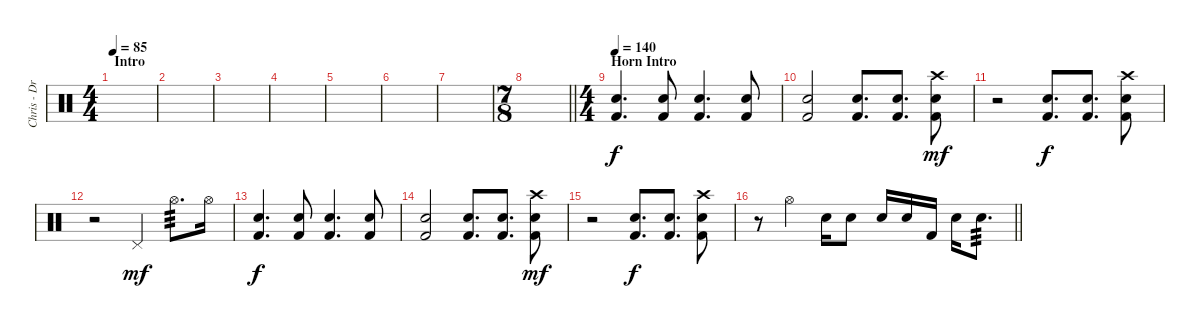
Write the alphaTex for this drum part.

\track ("Chris - Drums" "Chris - Dr") {instrument percussion}
\staff {score}
\articulation defaults
\ts (4 4)
\section ("" "Intro")
\tempo 85
\clef neutral
\ks c
|
|
|
|
|
|
|
\ts (7 8)
\barLineRight lightlight
|
\ts (4 4)
\section ("" "Horn Intro")
\tempo 140
("Electric Snare (hit)" "Kick (hit) 2").4{d} ("Electric Snare (hit)" "Kick (hit) 2").8 ("Electric Snare (hit)" "Kick (hit) 2").4{d} ("Electric Snare (hit)" "Kick (hit) 2").8 |
("Electric Snare (hit)" "Kick (hit) 2").2 ("Electric Snare (hit)" "Kick (hit) 2").8{d} ("Electric Snare (hit)" "Kick (hit) 2").8{d} ("Crash high (hit)" "Electric Snare (hit)" "Kick (hit) 2").8{dy mf} |
r.2 ("Electric Snare (hit)" "Kick (hit) 2").8{d dy f} ("Electric Snare (hit)" "Kick (hit) 2").8{d} ("Crash high (hit)" "Electric Snare (hit)" "Kick (hit) 2").8 |
r.2 "Pedal Hi-Hat (hit)".4{dy mf} "Hi-Hat (open)".8{d tp 3} "Hi-Hat (open)".16 |
("Electric Snare (hit)" "Kick (hit) 2").4{d dy f} ("Electric Snare (hit)" "Kick (hit) 2").8 ("Electric Snare (hit)" "Kick (hit) 2").4{d} ("Electric Snare (hit)" "Kick (hit) 2").8 |
("Electric Snare (hit)" "Kick (hit) 2").2 ("Electric Snare (hit)" "Kick (hit) 2").8{d} ("Electric Snare (hit)" "Kick (hit) 2").8{d} ("Crash high (hit)" "Electric Snare (hit)" "Kick (hit) 2").8{dy mf} |
r.2 ("Electric Snare (hit)" "Kick (hit) 2").8{d dy f} ("Electric Snare (hit)" "Kick (hit) 2").8{d} ("Crash high (hit)" "Electric Snare (hit)" "Kick (hit) 2").8 |
\barLineRight lightlight
r.8 "Hi-Hat (open)".4 "Electric Snare (hit)".16 "Electric Snare (hit)".8 "Electric Snare (hit)".16 "Electric Snare (hit)".16 "Kick (hit) 2".16 "Electric Snare (hit)".16 "Electric Snare (hit)".8{d tp 3}
